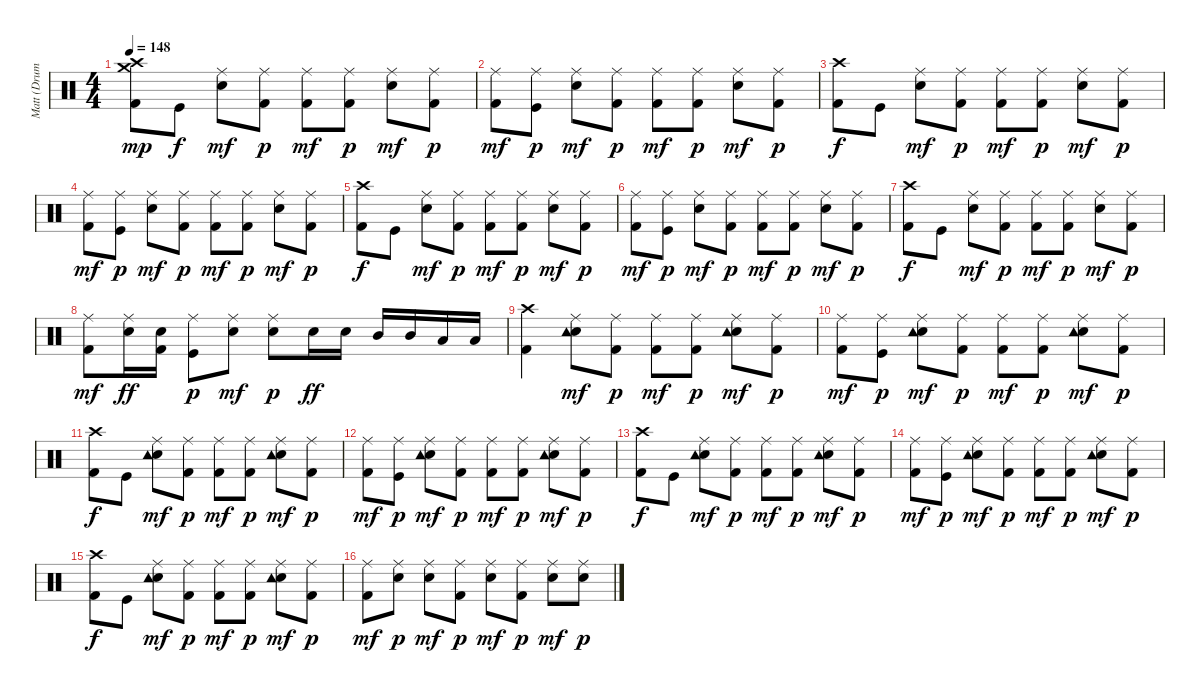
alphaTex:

\track ("Matt (Drums)" "Matt (Drum") {instrument percussion}
\staff {score}
\articulation defaults
\ts (4 4)
\tempo 148
\clef neutral
\ks c
("Kick (hit) 2" "Crash high (hit)" "Crash medium (hit)").8{dy mp} "Kick (hit)".8{dy f} ("Electric Snare (hit)" "Ride (middle)").8{dy mf} ("Kick (hit) 2" "Ride (middle)").8{dy p} ("Kick (hit) 2" "Ride (middle)").8{dy mf} ("Kick (hit) 2" "Ride (middle)").8{dy p} ("Electric Snare (hit)" "Ride (middle)").8{dy mf} ("Kick (hit) 2" "Ride (middle)").8{dy p} |
("Kick (hit) 2" "Ride (middle)").8{dy mf} ("Kick (hit)" "Ride (middle)").8{dy p} ("Electric Snare (hit)" "Ride (middle)").8{dy mf} ("Kick (hit) 2" "Ride (middle)").8{dy p} ("Kick (hit) 2" "Ride (middle)").8{dy mf} ("Kick (hit) 2" "Ride (middle)").8{dy p} ("Electric Snare (hit)" "Ride (middle)").8{dy mf} ("Kick (hit) 2" "Ride (middle)").8{dy p} |
("Kick (hit) 2" "Crash high (hit)").8{dy f} "Kick (hit)".8 ("Electric Snare (hit)" "Ride (middle)").8{dy mf} ("Kick (hit) 2" "Ride (middle)").8{dy p} ("Kick (hit) 2" "Ride (middle)").8{dy mf} ("Kick (hit) 2" "Ride (middle)").8{dy p} ("Electric Snare (hit)" "Ride (middle)").8{dy mf} ("Kick (hit) 2" "Ride (middle)").8{dy p} |
("Kick (hit) 2" "Ride (middle)").8{dy mf} ("Kick (hit)" "Ride (middle)").8{dy p} ("Electric Snare (hit)" "Ride (middle)").8{dy mf} ("Kick (hit) 2" "Ride (middle)").8{dy p} ("Kick (hit) 2" "Ride (middle)").8{dy mf} ("Kick (hit) 2" "Ride (middle)").8{dy p} ("Electric Snare (hit)" "Ride (middle)").8{dy mf} ("Kick (hit) 2" "Ride (middle)").8{dy p} |
("Kick (hit) 2" "Crash high (hit)").8{dy f} "Kick (hit)".8 ("Electric Snare (hit)" "Ride (middle)").8{dy mf} ("Kick (hit) 2" "Ride (middle)").8{dy p} ("Kick (hit) 2" "Ride (middle)").8{dy mf} ("Kick (hit) 2" "Ride (middle)").8{dy p} ("Electric Snare (hit)" "Ride (middle)").8{dy mf} ("Kick (hit) 2" "Ride (middle)").8{dy p} |
("Kick (hit) 2" "Ride (middle)").8{dy mf} ("Kick (hit)" "Ride (middle)").8{dy p} ("Electric Snare (hit)" "Ride (middle)").8{dy mf} ("Kick (hit) 2" "Ride (middle)").8{dy p} ("Kick (hit) 2" "Ride (middle)").8{dy mf} ("Kick (hit) 2" "Ride (middle)").8{dy p} ("Electric Snare (hit)" "Ride (middle)").8{dy mf} ("Kick (hit) 2" "Ride (middle)").8{dy p} |
("Kick (hit) 2" "Crash high (hit)").8{dy f} "Kick (hit)".8 ("Electric Snare (hit)" "Ride (middle)").8{dy mf} ("Kick (hit) 2" "Ride (middle)").8{dy p} ("Kick (hit) 2" "Ride (middle)").8{dy mf} ("Kick (hit) 2" "Ride (middle)").8{dy p} ("Electric Snare (hit)" "Ride (middle)").8{dy mf} ("Kick (hit) 2" "Ride (middle)").8{dy p} |
("Kick (hit) 2" "Ride (middle)").8{dy mf} ("Electric Snare (hit)" "Ride (middle)").16{dy ff} ("Electric Snare (hit)" "Kick (hit) 2").16 ("Kick (hit)" "Ride (middle)").8{dy p} ("Electric Snare (hit)" "Ride (middle)").8{dy mf} ("Electric Snare (hit)" "Ride (middle)").8{dy p} "Electric Snare (hit)".16{dy ff} "Electric Snare (hit)".16 "Mid Tom (hit)".16 "Mid Tom (hit)".16 "Low Tom (hit)".16 "Low Tom (hit)".16 |
("Kick (hit) 2" "Crash high (hit)").4 ("Electric Snare (hit)" "Tambourine (hit)" "Ride (middle)").8{dy mf} ("Kick (hit) 2" "Ride (middle)").8{dy p} ("Kick (hit) 2" "Ride (middle)").8{dy mf} ("Kick (hit) 2" "Ride (middle)").8{dy p} ("Electric Snare (hit)" "Tambourine (hit)" "Ride (middle)").8{dy mf} ("Kick (hit) 2" "Ride (middle)").8{dy p} |
("Kick (hit) 2" "Ride (middle)").8{dy mf} ("Kick (hit)" "Ride (middle)").8{dy p} ("Electric Snare (hit)" "Tambourine (hit)" "Ride (middle)").8{dy mf} ("Kick (hit) 2" "Ride (middle)").8{dy p} ("Kick (hit) 2" "Ride (middle)").8{dy mf} ("Kick (hit) 2" "Ride (middle)").8{dy p} ("Electric Snare (hit)" "Tambourine (hit)" "Ride (middle)").8{dy mf} ("Kick (hit) 2" "Ride (middle)").8{dy p} |
("Kick (hit) 2" "Crash high (hit)").8{dy f} "Kick (hit)".8 ("Electric Snare (hit)" "Tambourine (hit)" "Ride (middle)").8{dy mf} ("Kick (hit) 2" "Ride (middle)").8{dy p} ("Kick (hit) 2" "Ride (middle)").8{dy mf} ("Kick (hit) 2" "Ride (middle)").8{dy p} ("Electric Snare (hit)" "Tambourine (hit)" "Ride (middle)").8{dy mf} ("Kick (hit) 2" "Ride (middle)").8{dy p} |
("Kick (hit) 2" "Ride (middle)").8{dy mf} ("Kick (hit)" "Ride (middle)").8{dy p} ("Electric Snare (hit)" "Tambourine (hit)" "Ride (middle)").8{dy mf} ("Kick (hit) 2" "Ride (middle)").8{dy p} ("Kick (hit) 2" "Ride (middle)").8{dy mf} ("Kick (hit) 2" "Ride (middle)").8{dy p} ("Electric Snare (hit)" "Tambourine (hit)" "Ride (middle)").8{dy mf} ("Kick (hit) 2" "Ride (middle)").8{dy p} |
("Kick (hit) 2" "Crash high (hit)").8{dy f} "Kick (hit)".8 ("Electric Snare (hit)" "Tambourine (hit)" "Ride (middle)").8{dy mf} ("Kick (hit) 2" "Ride (middle)").8{dy p} ("Kick (hit) 2" "Ride (middle)").8{dy mf} ("Kick (hit) 2" "Ride (middle)").8{dy p} ("Electric Snare (hit)" "Tambourine (hit)" "Ride (middle)").8{dy mf} ("Kick (hit) 2" "Ride (middle)").8{dy p} |
("Kick (hit) 2" "Ride (middle)").8{dy mf} ("Kick (hit)" "Ride (middle)").8{dy p} ("Electric Snare (hit)" "Tambourine (hit)" "Ride (middle)").8{dy mf} ("Kick (hit) 2" "Ride (middle)").8{dy p} ("Kick (hit) 2" "Ride (middle)").8{dy mf} ("Kick (hit) 2" "Ride (middle)").8{dy p} ("Electric Snare (hit)" "Tambourine (hit)" "Ride (middle)").8{dy mf} ("Kick (hit) 2" "Ride (middle)").8{dy p} |
("Kick (hit) 2" "Crash high (hit)").8{dy f} "Kick (hit)".8 ("Electric Snare (hit)" "Tambourine (hit)" "Ride (middle)").8{dy mf} ("Kick (hit) 2" "Ride (middle)").8{dy p} ("Kick (hit) 2" "Ride (middle)").8{dy mf} ("Kick (hit) 2" "Ride (middle)").8{dy p} ("Electric Snare (hit)" "Tambourine (hit)" "Ride (middle)").8{dy mf} ("Kick (hit) 2" "Ride (middle)").8{dy p} |
("Kick (hit) 2" "Ride (middle)").8{dy mf} ("Electric Snare (hit)" "Ride (middle)").8{dy p} ("Electric Snare (hit)" "Ride (middle)").8{dy mf} ("Kick (hit) 2" "Ride (middle)").8{dy p} ("Electric Snare (hit)" "Ride (middle)").8{dy mf} ("Kick (hit) 2" "Ride (middle)").8{dy p} ("Electric Snare (hit)" "Ride (middle)").8{dy mf} ("Electric Snare (hit)" "Ride (middle)").8{dy p}
